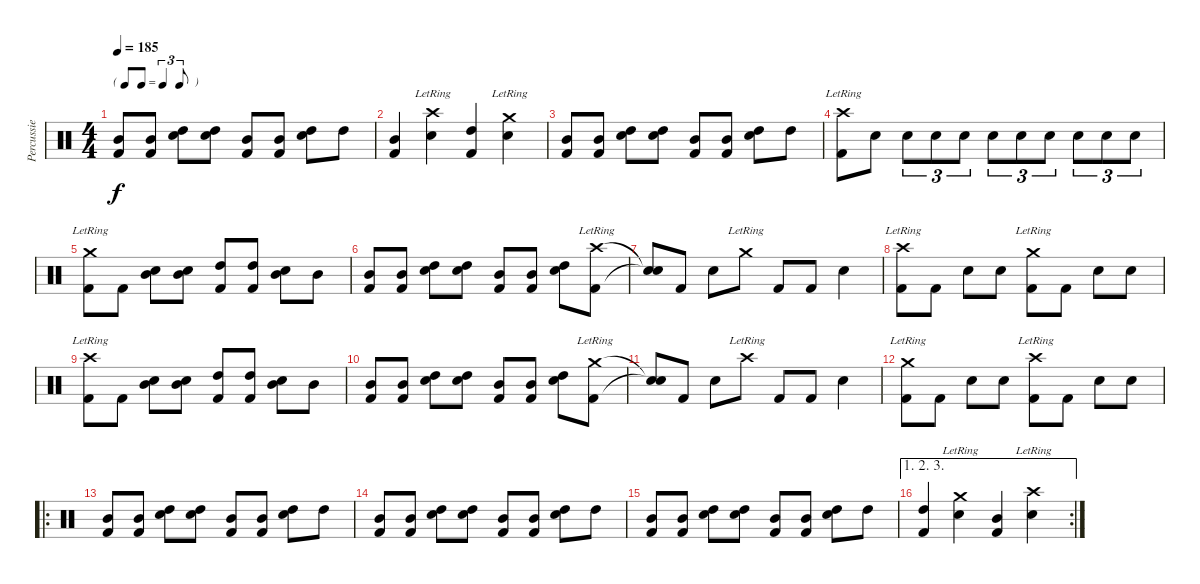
\track ("Percussie" "Percussie") {instrument percussion}
\staff {score}
\articulation defaults
\ts (4 4)
\tf triplet8th
\tempo 185
\clef neutral
\ks c
("Mid Tom (hit)" "Kick (hit) 2").8{dy f} ("Mid Tom (hit)" "Kick (hit) 2").8 ("High Tom (hit)" "Snare (hit) 2").8 ("High Tom (hit)" "Snare (hit) 2").8 ("Mid Tom (hit)" "Kick (hit) 2").8 ("Mid Tom (hit)" "Kick (hit) 2").8 ("High Tom (hit)" "Snare (hit) 2").8 "High Tom (hit)".8 |
("Mid Tom (hit)" "Kick (hit) 2").4 ("Crash high (hit)"{lr} "Snare (hit) 2").4 ("High Tom (hit)" "Kick (hit) 2").4 ("Crash medium (hit)"{lr} "Snare (hit) 2").4 |
("Mid Tom (hit)" "Kick (hit) 2").8 ("Mid Tom (hit)" "Kick (hit) 2").8 ("High Tom (hit)" "Snare (hit) 2").8 ("High Tom (hit)" "Snare (hit) 2").8 ("Mid Tom (hit)" "Kick (hit) 2").8 ("Mid Tom (hit)" "Kick (hit) 2").8 ("High Tom (hit)" "Snare (hit) 2").8 "High Tom (hit)".8 |
("Crash high (hit)"{lr} "Kick (hit) 2").8 "Snare (hit) 2".8 "Snare (hit) 2".8{tu (3 2)} "Snare (hit) 2".8{tu (3 2)} "Snare (hit) 2".8{tu (3 2)} "Snare (hit) 2".8{tu (3 2)} "Snare (hit) 2".8{tu (3 2)} "Snare (hit) 2".8{tu (3 2)} "Snare (hit) 2".8{tu (3 2)} "Snare (hit) 2".8{tu (3 2)} "Snare (hit) 2".8{tu (3 2)} |
("Crash medium (hit)"{lr} "Kick (hit) 2").8 "Kick (hit) 2".8 ("Mid Tom (hit)" "Snare (hit) 2").8 ("Mid Tom (hit)" "Snare (hit) 2").8 ("High Tom (hit)" "Kick (hit) 2").8 ("High Tom (hit)" "Kick (hit) 2").8 ("Mid Tom (hit)" "Snare (hit) 2").8 "Mid Tom (hit)".8 |
("Mid Tom (hit)" "Kick (hit) 2").8 ("Mid Tom (hit)" "Kick (hit) 2").8 ("High Tom (hit)" "Snare (hit) 2").8 ("High Tom (hit)" "Snare (hit) 2").8 ("Mid Tom (hit)" "Kick (hit) 2").8 ("Mid Tom (hit)" "Kick (hit) 2").8 ("High Tom (hit)" "Snare (hit) 2").8 ("Crash high (hit)"{lr} "Kick (hit) 2").8 |
("Snare (hit)"{t} "Snare (hit)"{t}).8 "Kick (hit) 2".8 "Snare (hit) 2".8 "Crash medium (hit)"{lr}.8 "Kick (hit) 2".8 "Kick (hit) 2".8 "Snare (hit) 2".4 |
("Crash high (hit)"{lr} "Kick (hit) 2").8 "Kick (hit) 2".8 "Snare (hit) 2".8 "Snare (hit) 2".8 ("Crash medium (hit)"{lr} "Kick (hit) 2").8 "Kick (hit) 2".8 "Snare (hit) 2".8 "Snare (hit) 2".8 |
("Crash high (hit)"{lr} "Kick (hit) 2").8 "Kick (hit) 2".8 ("Mid Tom (hit)" "Snare (hit) 2").8 ("Mid Tom (hit)" "Snare (hit) 2").8 ("High Tom (hit)" "Kick (hit) 2").8 ("High Tom (hit)" "Kick (hit) 2").8 ("Mid Tom (hit)" "Snare (hit) 2").8 "Mid Tom (hit)".8 |
("Mid Tom (hit)" "Kick (hit) 2").8 ("Mid Tom (hit)" "Kick (hit) 2").8 ("High Tom (hit)" "Snare (hit) 2").8 ("High Tom (hit)" "Snare (hit) 2").8 ("Mid Tom (hit)" "Kick (hit) 2").8 ("Mid Tom (hit)" "Kick (hit) 2").8 ("High Tom (hit)" "Snare (hit) 2").8 ("Crash medium (hit)"{lr} "Kick (hit) 2").8 |
("Snare (hit)"{t} "Snare (hit)"{t}).8 "Kick (hit) 2".8 "Snare (hit) 2".8 "Crash high (hit)"{lr}.8 "Kick (hit) 2".8 "Kick (hit) 2".8 "Snare (hit) 2".4 |
("Crash medium (hit)"{lr} "Kick (hit) 2").8 "Kick (hit) 2".8 "Snare (hit) 2".8 "Snare (hit) 2".8 ("Crash high (hit)"{lr} "Kick (hit) 2").8 "Kick (hit) 2".8 "Snare (hit) 2".8 "Snare (hit) 2".8 |
\ro
("Mid Tom (hit)" "Kick (hit) 2").8 ("Mid Tom (hit)" "Kick (hit) 2").8 ("High Tom (hit)" "Snare (hit) 2").8 ("High Tom (hit)" "Snare (hit) 2").8 ("Mid Tom (hit)" "Kick (hit) 2").8 ("Mid Tom (hit)" "Kick (hit) 2").8 ("High Tom (hit)" "Snare (hit) 2").8 "High Tom (hit)".8 |
("Mid Tom (hit)" "Kick (hit) 2").8 ("Mid Tom (hit)" "Kick (hit) 2").8 ("High Tom (hit)" "Snare (hit) 2").8 ("High Tom (hit)" "Snare (hit) 2").8 ("Mid Tom (hit)" "Kick (hit) 2").8 ("Mid Tom (hit)" "Kick (hit) 2").8 ("High Tom (hit)" "Snare (hit) 2").8 "High Tom (hit)".8 |
("Mid Tom (hit)" "Kick (hit) 2").8 ("Mid Tom (hit)" "Kick (hit) 2").8 ("High Tom (hit)" "Snare (hit) 2").8 ("High Tom (hit)" "Snare (hit) 2").8 ("Mid Tom (hit)" "Kick (hit) 2").8 ("Mid Tom (hit)" "Kick (hit) 2").8 ("High Tom (hit)" "Snare (hit) 2").8 "High Tom (hit)".8 |
\ae (1 2 3)
\rc 2
("High Tom (hit)" "Kick (hit) 2").4 ("Crash medium (hit)"{lr} "Snare (hit) 2").4 ("Mid Tom (hit)" "Kick (hit) 2").4 ("Crash high (hit)"{lr} "Snare (hit) 2").4
